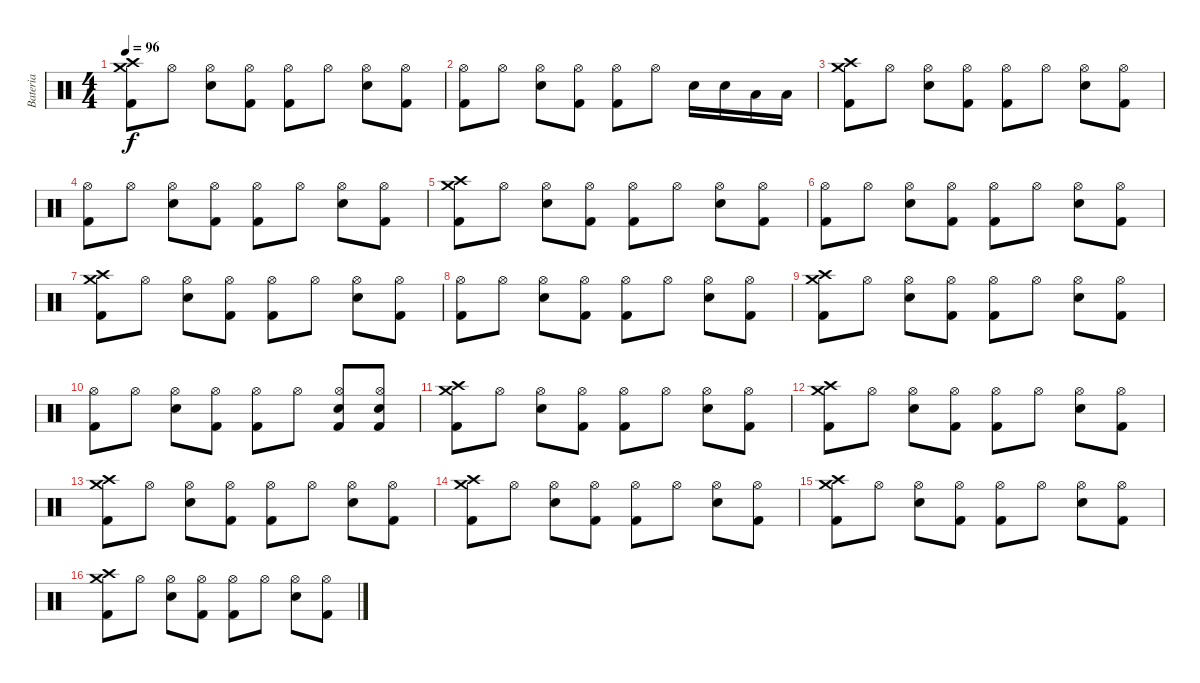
\track ("Bateria" "Bateria") {instrument percussion}
\staff {score}
\articulation defaults
\ts (4 4)
\tempo 96
\clef neutral
\ks c
("Crash high (hit)" "Crash medium (hit)" "Kick (hit) 2").8{dy f} "Hi-Hat (open)".8 ("Hi-Hat (open)" "Snare (hit) 2").8 ("Hi-Hat (open)" "Kick (hit) 2").8 ("Hi-Hat (open)" "Kick (hit) 2").8 "Hi-Hat (open)".8 ("Hi-Hat (open)" "Snare (hit) 2").8 ("Hi-Hat (open)" "Kick (hit) 2").8 |
("Hi-Hat (open)" "Kick (hit) 2").8 "Hi-Hat (open)".8 ("Hi-Hat (open)" "Snare (hit) 2").8 ("Hi-Hat (open)" "Kick (hit) 2").8 ("Hi-Hat (open)" "Kick (hit) 2").8 "Hi-Hat (open)".8 "Snare (hit) 2".16 "Snare (hit) 2".16 "Low Tom (hit)".16 "Low Tom (hit)".16 |
("Crash high (hit)" "Crash medium (hit)" "Kick (hit) 2").8 "Hi-Hat (open)".8 ("Hi-Hat (open)" "Snare (hit) 2").8 ("Hi-Hat (open)" "Kick (hit) 2").8 ("Hi-Hat (open)" "Kick (hit) 2").8 "Hi-Hat (open)".8 ("Hi-Hat (open)" "Snare (hit) 2").8 ("Hi-Hat (open)" "Kick (hit) 2").8 |
("Hi-Hat (open)" "Kick (hit) 2").8 "Hi-Hat (open)".8 ("Hi-Hat (open)" "Snare (hit) 2").8 ("Hi-Hat (open)" "Kick (hit) 2").8 ("Hi-Hat (open)" "Kick (hit) 2").8 "Hi-Hat (open)".8 ("Hi-Hat (open)" "Snare (hit) 2").8 ("Hi-Hat (open)" "Kick (hit) 2").8 |
("Crash high (hit)" "Crash medium (hit)" "Kick (hit) 2").8 "Hi-Hat (open)".8 ("Hi-Hat (open)" "Snare (hit) 2").8 ("Hi-Hat (open)" "Kick (hit) 2").8 ("Hi-Hat (open)" "Kick (hit) 2").8 "Hi-Hat (open)".8 ("Hi-Hat (open)" "Snare (hit) 2").8 ("Hi-Hat (open)" "Kick (hit) 2").8 |
("Hi-Hat (open)" "Kick (hit) 2").8 "Hi-Hat (open)".8 ("Hi-Hat (open)" "Snare (hit) 2").8 ("Hi-Hat (open)" "Kick (hit) 2").8 ("Hi-Hat (open)" "Kick (hit) 2").8 "Hi-Hat (open)".8 ("Hi-Hat (open)" "Snare (hit) 2").8 ("Hi-Hat (open)" "Kick (hit) 2").8 |
("Crash high (hit)" "Crash medium (hit)" "Kick (hit) 2").8 "Hi-Hat (open)".8 ("Hi-Hat (open)" "Snare (hit) 2").8 ("Hi-Hat (open)" "Kick (hit) 2").8 ("Hi-Hat (open)" "Kick (hit) 2").8 "Hi-Hat (open)".8 ("Hi-Hat (open)" "Snare (hit) 2").8 ("Hi-Hat (open)" "Kick (hit) 2").8 |
("Hi-Hat (open)" "Kick (hit) 2").8 "Hi-Hat (open)".8 ("Hi-Hat (open)" "Snare (hit) 2").8 ("Hi-Hat (open)" "Kick (hit) 2").8 ("Hi-Hat (open)" "Kick (hit) 2").8 "Hi-Hat (open)".8 ("Hi-Hat (open)" "Snare (hit) 2").8 ("Hi-Hat (open)" "Kick (hit) 2").8 |
("Crash high (hit)" "Crash medium (hit)" "Kick (hit) 2").8 "Hi-Hat (open)".8 ("Hi-Hat (open)" "Snare (hit) 2").8 ("Hi-Hat (open)" "Kick (hit) 2").8 ("Hi-Hat (open)" "Kick (hit) 2").8 "Hi-Hat (open)".8 ("Hi-Hat (open)" "Snare (hit) 2").8 ("Hi-Hat (open)" "Kick (hit) 2").8 |
("Hi-Hat (open)" "Kick (hit) 2").8 "Hi-Hat (open)".8 ("Hi-Hat (open)" "Snare (hit) 2").8 ("Hi-Hat (open)" "Kick (hit) 2").8 ("Hi-Hat (open)" "Kick (hit) 2").8 "Hi-Hat (open)".8 ("Kick (hit) 2" "Hi-Hat (open)" "Snare (hit) 2").8 ("Kick (hit) 2" "Hi-Hat (open)" "Snare (hit) 2").8 |
("Crash medium (hit)" "Crash high (hit)" "Kick (hit) 2").8 "Hi-Hat (open)".8 ("Hi-Hat (open)" "Snare (hit) 2").8 ("Hi-Hat (open)" "Kick (hit) 2").8 ("Hi-Hat (open)" "Kick (hit) 2").8 "Hi-Hat (open)".8 ("Hi-Hat (open)" "Snare (hit) 2").8 ("Hi-Hat (open)" "Kick (hit) 2").8 |
("Crash medium (hit)" "Crash high (hit)" "Kick (hit) 2").8 "Hi-Hat (open)".8 ("Hi-Hat (open)" "Snare (hit) 2").8 ("Hi-Hat (open)" "Kick (hit) 2").8 ("Hi-Hat (open)" "Kick (hit) 2").8 "Hi-Hat (open)".8 ("Hi-Hat (open)" "Snare (hit) 2").8 ("Hi-Hat (open)" "Kick (hit) 2").8 |
("Crash medium (hit)" "Crash high (hit)" "Kick (hit) 2").8 "Hi-Hat (open)".8 ("Hi-Hat (open)" "Snare (hit) 2").8 ("Hi-Hat (open)" "Kick (hit) 2").8 ("Hi-Hat (open)" "Kick (hit) 2").8 "Hi-Hat (open)".8 ("Hi-Hat (open)" "Snare (hit) 2").8 ("Hi-Hat (open)" "Kick (hit) 2").8 |
("Crash medium (hit)" "Crash high (hit)" "Kick (hit) 2").8 "Hi-Hat (open)".8 ("Hi-Hat (open)" "Snare (hit) 2").8 ("Hi-Hat (open)" "Kick (hit) 2").8 ("Hi-Hat (open)" "Kick (hit) 2").8 "Hi-Hat (open)".8 ("Hi-Hat (open)" "Snare (hit) 2").8 ("Hi-Hat (open)" "Kick (hit) 2").8 |
("Crash medium (hit)" "Crash high (hit)" "Kick (hit) 2").8 "Hi-Hat (open)".8 ("Hi-Hat (open)" "Snare (hit) 2").8 ("Hi-Hat (open)" "Kick (hit) 2").8 ("Hi-Hat (open)" "Kick (hit) 2").8 "Hi-Hat (open)".8 ("Hi-Hat (open)" "Snare (hit) 2").8 ("Hi-Hat (open)" "Kick (hit) 2").8 |
("Crash medium (hit)" "Crash high (hit)" "Kick (hit) 2").8 "Hi-Hat (open)".8 ("Hi-Hat (open)" "Snare (hit) 2").8 ("Hi-Hat (open)" "Kick (hit) 2").8 ("Hi-Hat (open)" "Kick (hit) 2").8 "Hi-Hat (open)".8 ("Hi-Hat (open)" "Snare (hit) 2").8 ("Hi-Hat (open)" "Kick (hit) 2").8
